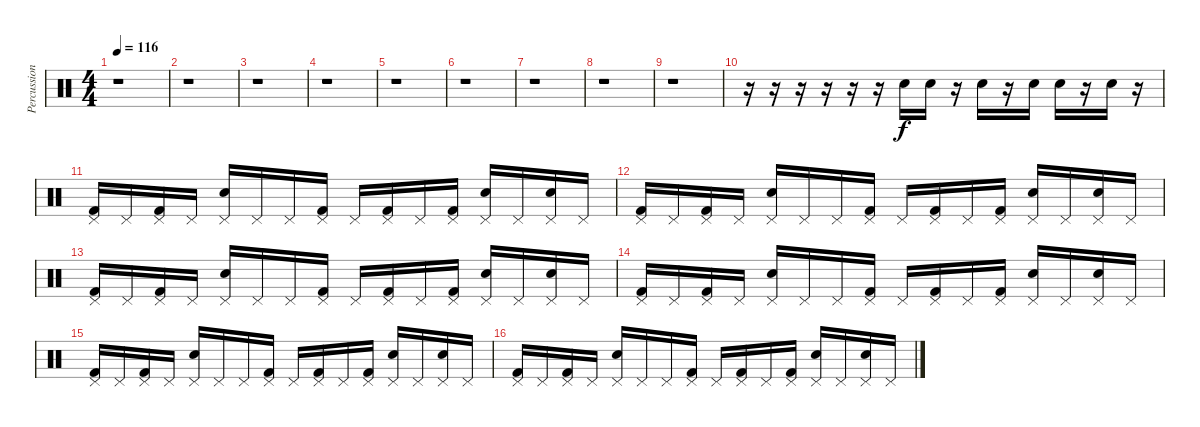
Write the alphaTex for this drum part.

\track ("Percussions" "Percussion") {instrument percussion}
\staff {score}
\articulation defaults
\ts (4 4)
\tempo 116
\clef neutral
\ks c
r.1{dy f} |
r.1 |
r.1 |
r.1 |
r.1 |
r.1 |
r.1 |
r.1 |
r.1 |
r.16 r.16 r.16 r.16 r.16 r.16 "Snare (hit) 2".16 "Snare (hit) 2".16 r.16 "Snare (hit) 2".16 r.16 "Snare (hit) 2".16 "Snare (hit) 2".16 r.16 "Snare (hit) 2".16 r.16 |
("Pedal Hi-Hat (hit)" "Kick (hit) 2").16 "Pedal Hi-Hat (hit)".16 ("Pedal Hi-Hat (hit)" "Kick (hit) 2").16 "Pedal Hi-Hat (hit)".16 ("Pedal Hi-Hat (hit)" "Snare (hit) 2").16 "Pedal Hi-Hat (hit)".16 "Pedal Hi-Hat (hit)".16 ("Pedal Hi-Hat (hit)" "Kick (hit) 2").16 "Pedal Hi-Hat (hit)".16 ("Pedal Hi-Hat (hit)" "Kick (hit) 2").16 "Pedal Hi-Hat (hit)".16 ("Pedal Hi-Hat (hit)" "Kick (hit) 2").16 ("Pedal Hi-Hat (hit)" "Snare (hit) 2").16 "Pedal Hi-Hat (hit)".16 ("Pedal Hi-Hat (hit)" "Snare (hit) 2").16 "Pedal Hi-Hat (hit)".16 |
("Pedal Hi-Hat (hit)" "Kick (hit) 2").16 "Pedal Hi-Hat (hit)".16 ("Pedal Hi-Hat (hit)" "Kick (hit) 2").16 "Pedal Hi-Hat (hit)".16 ("Pedal Hi-Hat (hit)" "Snare (hit) 2").16 "Pedal Hi-Hat (hit)".16 "Pedal Hi-Hat (hit)".16 ("Pedal Hi-Hat (hit)" "Kick (hit) 2").16 "Pedal Hi-Hat (hit)".16 ("Pedal Hi-Hat (hit)" "Kick (hit) 2").16 "Pedal Hi-Hat (hit)".16 ("Pedal Hi-Hat (hit)" "Kick (hit) 2").16 ("Pedal Hi-Hat (hit)" "Snare (hit) 2").16 "Pedal Hi-Hat (hit)".16 ("Pedal Hi-Hat (hit)" "Snare (hit) 2").16 "Pedal Hi-Hat (hit)".16 |
("Pedal Hi-Hat (hit)" "Kick (hit) 2").16 "Pedal Hi-Hat (hit)".16 ("Pedal Hi-Hat (hit)" "Kick (hit) 2").16 "Pedal Hi-Hat (hit)".16 ("Pedal Hi-Hat (hit)" "Snare (hit) 2").16 "Pedal Hi-Hat (hit)".16 "Pedal Hi-Hat (hit)".16 ("Pedal Hi-Hat (hit)" "Kick (hit) 2").16 "Pedal Hi-Hat (hit)".16 ("Pedal Hi-Hat (hit)" "Kick (hit) 2").16 "Pedal Hi-Hat (hit)".16 ("Pedal Hi-Hat (hit)" "Kick (hit) 2").16 ("Pedal Hi-Hat (hit)" "Snare (hit) 2").16 "Pedal Hi-Hat (hit)".16 ("Pedal Hi-Hat (hit)" "Snare (hit) 2").16 "Pedal Hi-Hat (hit)".16 |
("Pedal Hi-Hat (hit)" "Kick (hit) 2").16 "Pedal Hi-Hat (hit)".16 ("Pedal Hi-Hat (hit)" "Kick (hit) 2").16 "Pedal Hi-Hat (hit)".16 ("Pedal Hi-Hat (hit)" "Snare (hit) 2").16 "Pedal Hi-Hat (hit)".16 "Pedal Hi-Hat (hit)".16 ("Pedal Hi-Hat (hit)" "Kick (hit) 2").16 "Pedal Hi-Hat (hit)".16 ("Pedal Hi-Hat (hit)" "Kick (hit) 2").16 "Pedal Hi-Hat (hit)".16 ("Pedal Hi-Hat (hit)" "Kick (hit) 2").16 ("Pedal Hi-Hat (hit)" "Snare (hit) 2").16 "Pedal Hi-Hat (hit)".16 ("Pedal Hi-Hat (hit)" "Snare (hit) 2").16 "Pedal Hi-Hat (hit)".16 |
("Pedal Hi-Hat (hit)" "Kick (hit) 2").16 "Pedal Hi-Hat (hit)".16 ("Pedal Hi-Hat (hit)" "Kick (hit) 2").16 "Pedal Hi-Hat (hit)".16 ("Pedal Hi-Hat (hit)" "Snare (hit) 2").16 "Pedal Hi-Hat (hit)".16 "Pedal Hi-Hat (hit)".16 ("Pedal Hi-Hat (hit)" "Kick (hit) 2").16 "Pedal Hi-Hat (hit)".16 ("Pedal Hi-Hat (hit)" "Kick (hit) 2").16 "Pedal Hi-Hat (hit)".16 ("Pedal Hi-Hat (hit)" "Kick (hit) 2").16 ("Pedal Hi-Hat (hit)" "Snare (hit) 2").16 "Pedal Hi-Hat (hit)".16 ("Pedal Hi-Hat (hit)" "Snare (hit) 2").16 "Pedal Hi-Hat (hit)".16 |
("Pedal Hi-Hat (hit)" "Kick (hit) 2").16 "Pedal Hi-Hat (hit)".16 ("Pedal Hi-Hat (hit)" "Kick (hit) 2").16 "Pedal Hi-Hat (hit)".16 ("Pedal Hi-Hat (hit)" "Snare (hit) 2").16 "Pedal Hi-Hat (hit)".16 "Pedal Hi-Hat (hit)".16 ("Pedal Hi-Hat (hit)" "Kick (hit) 2").16 "Pedal Hi-Hat (hit)".16 ("Pedal Hi-Hat (hit)" "Kick (hit) 2").16 "Pedal Hi-Hat (hit)".16 ("Pedal Hi-Hat (hit)" "Kick (hit) 2").16 ("Pedal Hi-Hat (hit)" "Snare (hit) 2").16 "Pedal Hi-Hat (hit)".16 ("Pedal Hi-Hat (hit)" "Snare (hit) 2").16 "Pedal Hi-Hat (hit)".16
